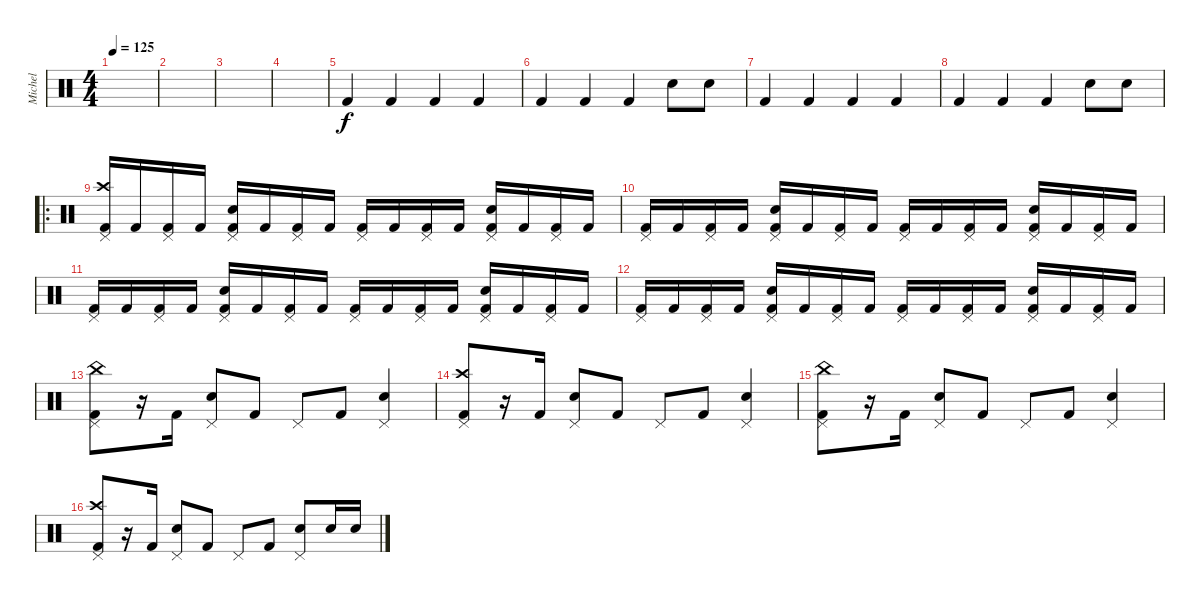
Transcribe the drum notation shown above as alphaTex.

\track ("Michel" "Michel") {instrument percussion}
\staff {score}
\articulation defaults
\ts (4 4)
\tempo 125
\clef neutral
\ks c
|
|
|
|
"Kick (hit) 2".4 "Kick (hit) 2".4 "Kick (hit) 2".4 "Kick (hit) 2".4 |
"Kick (hit) 2".4 "Kick (hit) 2".4 "Kick (hit) 2".4 "Snare (hit) 2".8 "Snare (hit) 2".8 |
"Kick (hit) 2".4 "Kick (hit) 2".4 "Kick (hit) 2".4 "Kick (hit) 2".4 |
"Kick (hit) 2".4 "Kick (hit) 2".4 "Kick (hit) 2".4 "Snare (hit) 2".8 "Snare (hit) 2".8 |
\ro
("Crash high (hit)" "Kick (hit) 2" "Pedal Hi-Hat (hit)").16 "Kick (hit) 2".16 ("Kick (hit) 2" "Pedal Hi-Hat (hit)").16 "Kick (hit) 2".16 ("Snare (hit) 2" "Kick (hit) 2" "Pedal Hi-Hat (hit)").16 "Kick (hit) 2".16 ("Kick (hit) 2" "Pedal Hi-Hat (hit)").16 "Kick (hit) 2".16 ("Kick (hit) 2" "Pedal Hi-Hat (hit)").16 "Kick (hit) 2".16 ("Kick (hit) 2" "Pedal Hi-Hat (hit)").16 "Kick (hit) 2".16 ("Snare (hit) 2" "Kick (hit) 2" "Pedal Hi-Hat (hit)").16 "Kick (hit) 2".16 ("Kick (hit) 2" "Pedal Hi-Hat (hit)").16 "Kick (hit) 2".16 |
("Kick (hit) 2" "Pedal Hi-Hat (hit)").16 "Kick (hit) 2".16 ("Kick (hit) 2" "Pedal Hi-Hat (hit)").16 "Kick (hit) 2".16 ("Snare (hit) 2" "Kick (hit) 2" "Pedal Hi-Hat (hit)").16 "Kick (hit) 2".16 ("Kick (hit) 2" "Pedal Hi-Hat (hit)").16 "Kick (hit) 2".16 ("Kick (hit) 2" "Pedal Hi-Hat (hit)").16 "Kick (hit) 2".16 ("Kick (hit) 2" "Pedal Hi-Hat (hit)").16 "Kick (hit) 2".16 ("Snare (hit) 2" "Kick (hit) 2" "Pedal Hi-Hat (hit)").16 "Kick (hit) 2".16 ("Kick (hit) 2" "Pedal Hi-Hat (hit)").16 "Kick (hit) 2".16 |
("Kick (hit) 2" "Pedal Hi-Hat (hit)").16 "Kick (hit) 2".16 ("Kick (hit) 2" "Pedal Hi-Hat (hit)").16 "Kick (hit) 2".16 ("Snare (hit) 2" "Kick (hit) 2" "Pedal Hi-Hat (hit)").16 "Kick (hit) 2".16 ("Kick (hit) 2" "Pedal Hi-Hat (hit)").16 "Kick (hit) 2".16 ("Kick (hit) 2" "Pedal Hi-Hat (hit)").16 "Kick (hit) 2".16 ("Kick (hit) 2" "Pedal Hi-Hat (hit)").16 "Kick (hit) 2".16 ("Snare (hit) 2" "Kick (hit) 2" "Pedal Hi-Hat (hit)").16 "Kick (hit) 2".16 ("Kick (hit) 2" "Pedal Hi-Hat (hit)").16 "Kick (hit) 2".16 |
("Kick (hit) 2" "Pedal Hi-Hat (hit)").16 "Kick (hit) 2".16 ("Kick (hit) 2" "Pedal Hi-Hat (hit)").16 "Kick (hit) 2".16 ("Snare (hit) 2" "Kick (hit) 2" "Pedal Hi-Hat (hit)").16 "Kick (hit) 2".16 ("Kick (hit) 2" "Pedal Hi-Hat (hit)").16 "Kick (hit) 2".16 ("Kick (hit) 2" "Pedal Hi-Hat (hit)").16 "Kick (hit) 2".16 ("Kick (hit) 2" "Pedal Hi-Hat (hit)").16 "Kick (hit) 2".16 ("Snare (hit) 2" "Kick (hit) 2" "Pedal Hi-Hat (hit)").16 "Kick (hit) 2".16 ("Kick (hit) 2" "Pedal Hi-Hat (hit)").16 "Kick (hit) 2".16 |
("China (hit)" "Kick (hit) 2" "Pedal Hi-Hat (hit)").8 r.16 "Kick (hit) 2".16 ("Snare (hit) 2" "Pedal Hi-Hat (hit)").8 "Kick (hit) 2".8 "Pedal Hi-Hat (hit)".8 "Kick (hit) 2".8 ("Snare (hit) 2" "Pedal Hi-Hat (hit)").4 |
("Crash high (hit)" "Kick (hit) 2" "Pedal Hi-Hat (hit)").8 r.16 "Kick (hit) 2".16 ("Snare (hit) 2" "Pedal Hi-Hat (hit)").8 "Kick (hit) 2".8 "Pedal Hi-Hat (hit)".8 "Kick (hit) 2".8 ("Snare (hit) 2" "Pedal Hi-Hat (hit)").4 |
("China (hit)" "Kick (hit) 2" "Pedal Hi-Hat (hit)").8 r.16 "Kick (hit) 2".16 ("Snare (hit) 2" "Pedal Hi-Hat (hit)").8 "Kick (hit) 2".8 "Pedal Hi-Hat (hit)".8 "Kick (hit) 2".8 ("Snare (hit) 2" "Pedal Hi-Hat (hit)").4 |
("Crash high (hit)" "Kick (hit) 2" "Pedal Hi-Hat (hit)").8 r.16 "Kick (hit) 2".16 ("Snare (hit) 2" "Pedal Hi-Hat (hit)").8 "Kick (hit) 2".8 "Pedal Hi-Hat (hit)".8 "Kick (hit) 2".8 ("Snare (hit) 2" "Pedal Hi-Hat (hit)").8 "Snare (hit) 2".16 "Snare (hit) 2".16
